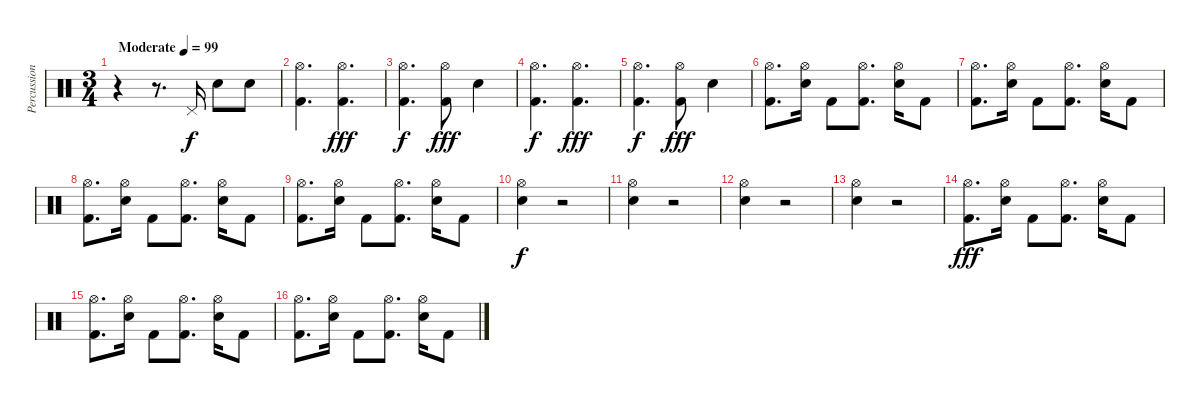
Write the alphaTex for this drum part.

\track ("Percussion" "Percussion") {instrument percussion}
\staff {score}
\articulation defaults
\ts (3 4)
\tempo (99 "Moderate")
\clef neutral
\ks c
r.4{dy f} r.8{d} "Pedal Hi-Hat (hit)".16 "Electric Snare (hit)".8 "Electric Snare (hit)".8 |
("Hi-Hat (open)" "Kick (hit) 2").4{d} ("Hi-Hat (open)" "Kick (hit) 2").4{d dy fff} |
("Hi-Hat (open)" "Kick (hit) 2").4{d dy f} ("Hi-Hat (open)" "Kick (hit) 2").8{dy fff} "Electric Snare (hit)".4 |
("Hi-Hat (open)" "Kick (hit) 2").4{d dy f} ("Hi-Hat (open)" "Kick (hit) 2").4{d dy fff} |
("Hi-Hat (open)" "Kick (hit) 2").4{d dy f} ("Hi-Hat (open)" "Kick (hit) 2").8{dy fff} "Electric Snare (hit)".4 |
("Hi-Hat (open)" "Kick (hit) 2").8{d} ("Hi-Hat (open)" "Electric Snare (hit)").16 "Kick (hit) 2".8 ("Hi-Hat (open)" "Kick (hit) 2").8{d} ("Hi-Hat (open)" "Electric Snare (hit)").16 "Kick (hit) 2".8 |
("Hi-Hat (open)" "Kick (hit) 2").8{d} ("Hi-Hat (open)" "Electric Snare (hit)").16 "Kick (hit) 2".8 ("Hi-Hat (open)" "Kick (hit) 2").8{d} ("Hi-Hat (open)" "Electric Snare (hit)").16 "Kick (hit) 2".8 |
("Hi-Hat (open)" "Kick (hit) 2").8{d} ("Hi-Hat (open)" "Electric Snare (hit)").16 "Kick (hit) 2".8 ("Hi-Hat (open)" "Kick (hit) 2").8{d} ("Hi-Hat (open)" "Electric Snare (hit)").16 "Kick (hit) 2".8 |
("Hi-Hat (open)" "Kick (hit) 2").8{d} ("Hi-Hat (open)" "Electric Snare (hit)").16 "Kick (hit) 2".8 ("Hi-Hat (open)" "Kick (hit) 2").8{d} ("Hi-Hat (open)" "Electric Snare (hit)").16 "Kick (hit) 2".8 |
("Hi-Hat (open)" "Electric Snare (hit)").4{dy f} r.2 |
("Hi-Hat (open)" "Electric Snare (hit)").4 r.2 |
("Hi-Hat (open)" "Electric Snare (hit)").4 r.2 |
("Hi-Hat (open)" "Electric Snare (hit)").4 r.2 |
("Hi-Hat (open)" "Kick (hit) 2").8{d dy fff} ("Hi-Hat (open)" "Electric Snare (hit)").16 "Kick (hit) 2".8 ("Hi-Hat (open)" "Kick (hit) 2").8{d} ("Hi-Hat (open)" "Electric Snare (hit)").16 "Kick (hit) 2".8 |
("Hi-Hat (open)" "Kick (hit) 2").8{d} ("Hi-Hat (open)" "Electric Snare (hit)").16 "Kick (hit) 2".8 ("Hi-Hat (open)" "Kick (hit) 2").8{d} ("Hi-Hat (open)" "Electric Snare (hit)").16 "Kick (hit) 2".8 |
("Hi-Hat (open)" "Kick (hit) 2").8{d} ("Hi-Hat (open)" "Electric Snare (hit)").16 "Kick (hit) 2".8 ("Hi-Hat (open)" "Kick (hit) 2").8{d} ("Hi-Hat (open)" "Electric Snare (hit)").16 "Kick (hit) 2".8
